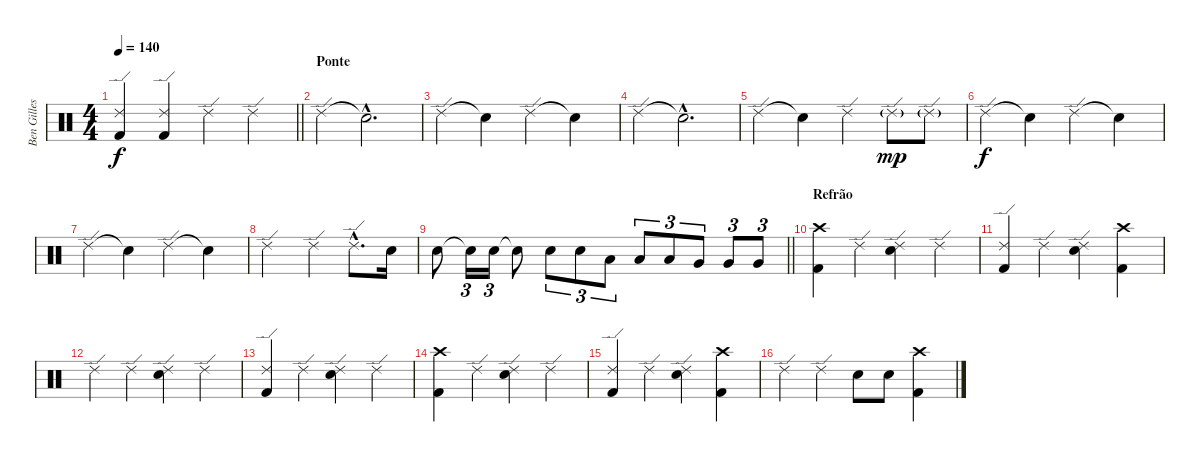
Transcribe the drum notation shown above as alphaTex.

\track ("Ben Gilles" "Ben Gilles") {instrument percussion}
\staff {score}
\articulation defaults
\ts (4 4)
\tempo 140
\clef neutral
\barLineRight lightlight
\ks c
("Ride (edge) 2" "Kick (hit) 2").4{dy f} ("Ride (edge) 2" "Kick (hit) 2").4 "Ride (edge) 2".4 "Ride (edge) 2".4 |
\section ("" "Ponte")
"Ride (edge) 2".4 "Snare (hit)"{hac t}.2{d} |
"Ride (edge) 2".4 "Snare (hit)"{t}.4 "Ride (edge) 2".4 "Snare (hit)"{t}.4 |
"Ride (edge) 2".4 "Snare (hit)"{hac t}.2{d} |
"Ride (edge) 2".4 "Snare (hit)"{t}.4 "Ride (edge) 2".4 "Ride (edge) 2"{g}.8{dy mp} "Ride (edge) 2"{g}.8 |
"Ride (edge) 2".4{dy f} "Snare (hit)"{t}.4 "Ride (edge) 2".4 "Snare (hit)"{t}.4 |
"Ride (edge) 2".4 "Snare (hit)"{t}.4 "Ride (edge) 2".4 "Snare (hit)"{t}.4 |
"Ride (edge) 2".2 "Ride (edge) 2".4 "Ride (edge) 2"{hac}.8{d} "Electric Snare (hit)".16 |
\barLineRight lightlight "Electric Snare (hit)".8 "Snare (hit)"{t}.16{tu (3 2)} "Electric Snare (hit)".16{tu (3 2)} "Snare (hit)"{t}.8 "Electric Snare (hit)".8{tu (3 2)} "Electric Snare (hit)".8{tu (3 2)} "Low Tom (hit)".8{tu (3 2)} "Low Tom (hit)".8{tu (3 2)} "Low Tom (hit)".8{tu (3 2)} "Very Low Tom (hit)".8{tu (3 2)} "Very Low Tom (hit)".8{tu (3 2)} "Very Low Tom (hit)".8{tu (3 2)}
|
\section ("" "Refrão")
("Crash high (hit)" "Kick (hit) 2").4 "Ride (edge) 2".4 ("Ride (edge) 2" "Electric Snare (hit)").4 "Ride (edge) 2".4 |
("Ride (edge) 2" "Kick (hit) 2").4 "Ride (edge) 2".4 ("Ride (edge) 2" "Electric Snare (hit)").4 ("Crash high (hit)" "Kick (hit) 2").4 |
"Ride (edge) 2".4 "Ride (edge) 2".4 ("Ride (edge) 2" "Electric Snare (hit)").4 "Ride (edge) 2".4 |
("Ride (edge) 2" "Kick (hit) 2").4 "Ride (edge) 2".4 ("Ride (edge) 2" "Electric Snare (hit)").4 "Ride (edge) 2".4 |
("Crash high (hit)" "Kick (hit) 2").4 "Ride (edge) 2".4 ("Ride (edge) 2" "Electric Snare (hit)").4 "Ride (edge) 2".4 |
("Ride (edge) 2" "Kick (hit) 2").4 "Ride (edge) 2".4 ("Ride (edge) 2" "Electric Snare (hit)").4 ("Crash high (hit)" "Kick (hit) 2").4 |
"Ride (edge) 2".4 "Ride (edge) 2".4 "Electric Snare (hit)".8 "Electric Snare (hit)".8 ("Crash high (hit)" "Kick (hit) 2").4
